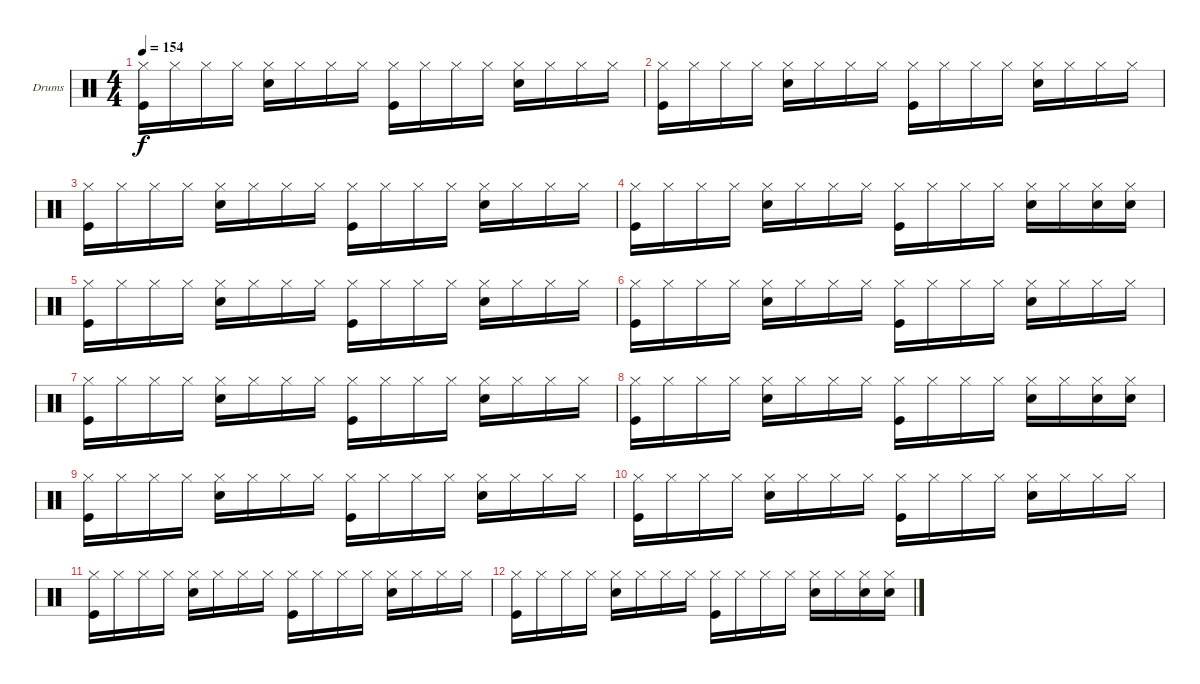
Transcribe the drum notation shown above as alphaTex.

\bracketExtendMode groupsimilarinstruments
\firstSystemTrackNameOrientation horizontal
\otherSystemsTrackNameOrientation horizontal
\track ("Drums" "Drums") {instrument percussion}
\staff {score}
\articulation defaults
\ts (4 4)
\tempo 154
\clef neutral
\ks c
("Kick (hit)" "Hi-Hat (closed)").16{dy f} "Hi-Hat (closed)".16 "Hi-Hat (closed)".16 "Hi-Hat (closed)".16 ("Snare (hit) 2" "Hi-Hat (closed)").16 "Hi-Hat (closed)".16 "Hi-Hat (closed)".16 "Hi-Hat (closed)".16 ("Kick (hit)" "Hi-Hat (closed)").16 "Hi-Hat (closed)".16 "Hi-Hat (closed)".16 "Hi-Hat (closed)".16 ("Snare (hit) 2" "Hi-Hat (closed)").16 "Hi-Hat (closed)".16 "Hi-Hat (closed)".16 "Hi-Hat (closed)".16 |
("Kick (hit)" "Hi-Hat (closed)").16 "Hi-Hat (closed)".16 "Hi-Hat (closed)".16 "Hi-Hat (closed)".16 ("Snare (hit) 2" "Hi-Hat (closed)").16 "Hi-Hat (closed)".16 "Hi-Hat (closed)".16 "Hi-Hat (closed)".16 ("Kick (hit)" "Hi-Hat (closed)").16 "Hi-Hat (closed)".16 "Hi-Hat (closed)".16 "Hi-Hat (closed)".16 ("Snare (hit) 2" "Hi-Hat (closed)").16 "Hi-Hat (closed)".16 "Hi-Hat (closed)".16 "Hi-Hat (closed)".16 |
("Kick (hit)" "Hi-Hat (closed)").16 "Hi-Hat (closed)".16 "Hi-Hat (closed)".16 "Hi-Hat (closed)".16 ("Snare (hit) 2" "Hi-Hat (closed)").16 "Hi-Hat (closed)".16 "Hi-Hat (closed)".16 "Hi-Hat (closed)".16 ("Kick (hit)" "Hi-Hat (closed)").16 "Hi-Hat (closed)".16 "Hi-Hat (closed)".16 "Hi-Hat (closed)".16 ("Snare (hit) 2" "Hi-Hat (closed)").16 "Hi-Hat (closed)".16 "Hi-Hat (closed)".16 "Hi-Hat (closed)".16 |
("Kick (hit)" "Hi-Hat (closed)").16 "Hi-Hat (closed)".16 "Hi-Hat (closed)".16 "Hi-Hat (closed)".16 ("Snare (hit) 2" "Hi-Hat (closed)").16 "Hi-Hat (closed)".16 "Hi-Hat (closed)".16 "Hi-Hat (closed)".16 ("Kick (hit)" "Hi-Hat (closed)").16 "Hi-Hat (closed)".16 "Hi-Hat (closed)".16 "Hi-Hat (closed)".16 ("Snare (hit) 2" "Hi-Hat (closed)").16 "Hi-Hat (closed)".16 ("Snare (hit) 2" "Hi-Hat (closed)").16 ("Snare (hit) 2" "Hi-Hat (closed)").16 |
("Kick (hit)" "Hi-Hat (closed)").16 "Hi-Hat (closed)".16 "Hi-Hat (closed)".16 "Hi-Hat (closed)".16 ("Snare (hit) 2" "Hi-Hat (closed)").16 "Hi-Hat (closed)".16 "Hi-Hat (closed)".16 "Hi-Hat (closed)".16 ("Kick (hit)" "Hi-Hat (closed)").16 "Hi-Hat (closed)".16 "Hi-Hat (closed)".16 "Hi-Hat (closed)".16 ("Snare (hit) 2" "Hi-Hat (closed)").16 "Hi-Hat (closed)".16 "Hi-Hat (closed)".16 "Hi-Hat (closed)".16 |
("Kick (hit)" "Hi-Hat (closed)").16 "Hi-Hat (closed)".16 "Hi-Hat (closed)".16 "Hi-Hat (closed)".16 ("Snare (hit) 2" "Hi-Hat (closed)").16 "Hi-Hat (closed)".16 "Hi-Hat (closed)".16 "Hi-Hat (closed)".16 ("Kick (hit)" "Hi-Hat (closed)").16 "Hi-Hat (closed)".16 "Hi-Hat (closed)".16 "Hi-Hat (closed)".16 ("Snare (hit) 2" "Hi-Hat (closed)").16 "Hi-Hat (closed)".16 "Hi-Hat (closed)".16 "Hi-Hat (closed)".16 |
("Kick (hit)" "Hi-Hat (closed)").16 "Hi-Hat (closed)".16 "Hi-Hat (closed)".16 "Hi-Hat (closed)".16 ("Snare (hit) 2" "Hi-Hat (closed)").16 "Hi-Hat (closed)".16 "Hi-Hat (closed)".16 "Hi-Hat (closed)".16 ("Kick (hit)" "Hi-Hat (closed)").16 "Hi-Hat (closed)".16 "Hi-Hat (closed)".16 "Hi-Hat (closed)".16 ("Snare (hit) 2" "Hi-Hat (closed)").16 "Hi-Hat (closed)".16 "Hi-Hat (closed)".16 "Hi-Hat (closed)".16 |
("Kick (hit)" "Hi-Hat (closed)").16 "Hi-Hat (closed)".16 "Hi-Hat (closed)".16 "Hi-Hat (closed)".16 ("Snare (hit) 2" "Hi-Hat (closed)").16 "Hi-Hat (closed)".16 "Hi-Hat (closed)".16 "Hi-Hat (closed)".16 ("Kick (hit)" "Hi-Hat (closed)").16 "Hi-Hat (closed)".16 "Hi-Hat (closed)".16 "Hi-Hat (closed)".16 ("Snare (hit) 2" "Hi-Hat (closed)").16 "Hi-Hat (closed)".16 ("Snare (hit) 2" "Hi-Hat (closed)").16 ("Snare (hit) 2" "Hi-Hat (closed)").16 |
("Kick (hit)" "Hi-Hat (closed)").16 "Hi-Hat (closed)".16 "Hi-Hat (closed)".16 "Hi-Hat (closed)".16 ("Snare (hit) 2" "Hi-Hat (closed)").16 "Hi-Hat (closed)".16 "Hi-Hat (closed)".16 "Hi-Hat (closed)".16 ("Kick (hit)" "Hi-Hat (closed)").16 "Hi-Hat (closed)".16 "Hi-Hat (closed)".16 "Hi-Hat (closed)".16 ("Snare (hit) 2" "Hi-Hat (closed)").16 "Hi-Hat (closed)".16 "Hi-Hat (closed)".16 "Hi-Hat (closed)".16 |
("Kick (hit)" "Hi-Hat (closed)").16 "Hi-Hat (closed)".16 "Hi-Hat (closed)".16 "Hi-Hat (closed)".16 ("Snare (hit) 2" "Hi-Hat (closed)").16 "Hi-Hat (closed)".16 "Hi-Hat (closed)".16 "Hi-Hat (closed)".16 ("Kick (hit)" "Hi-Hat (closed)").16 "Hi-Hat (closed)".16 "Hi-Hat (closed)".16 "Hi-Hat (closed)".16 ("Snare (hit) 2" "Hi-Hat (closed)").16 "Hi-Hat (closed)".16 "Hi-Hat (closed)".16 "Hi-Hat (closed)".16 |
("Kick (hit)" "Hi-Hat (closed)").16 "Hi-Hat (closed)".16 "Hi-Hat (closed)".16 "Hi-Hat (closed)".16 ("Snare (hit) 2" "Hi-Hat (closed)").16 "Hi-Hat (closed)".16 "Hi-Hat (closed)".16 "Hi-Hat (closed)".16 ("Kick (hit)" "Hi-Hat (closed)").16 "Hi-Hat (closed)".16 "Hi-Hat (closed)".16 "Hi-Hat (closed)".16 ("Snare (hit) 2" "Hi-Hat (closed)").16 "Hi-Hat (closed)".16 "Hi-Hat (closed)".16 "Hi-Hat (closed)".16 |
("Kick (hit)" "Hi-Hat (closed)").16 "Hi-Hat (closed)".16 "Hi-Hat (closed)".16 "Hi-Hat (closed)".16 ("Snare (hit) 2" "Hi-Hat (closed)").16 "Hi-Hat (closed)".16 "Hi-Hat (closed)".16 "Hi-Hat (closed)".16 ("Kick (hit)" "Hi-Hat (closed)").16 "Hi-Hat (closed)".16 "Hi-Hat (closed)".16 "Hi-Hat (closed)".16 ("Snare (hit) 2" "Hi-Hat (closed)").16 "Hi-Hat (closed)".16 ("Snare (hit) 2" "Hi-Hat (closed)").16 ("Snare (hit) 2" "Hi-Hat (closed)").16
